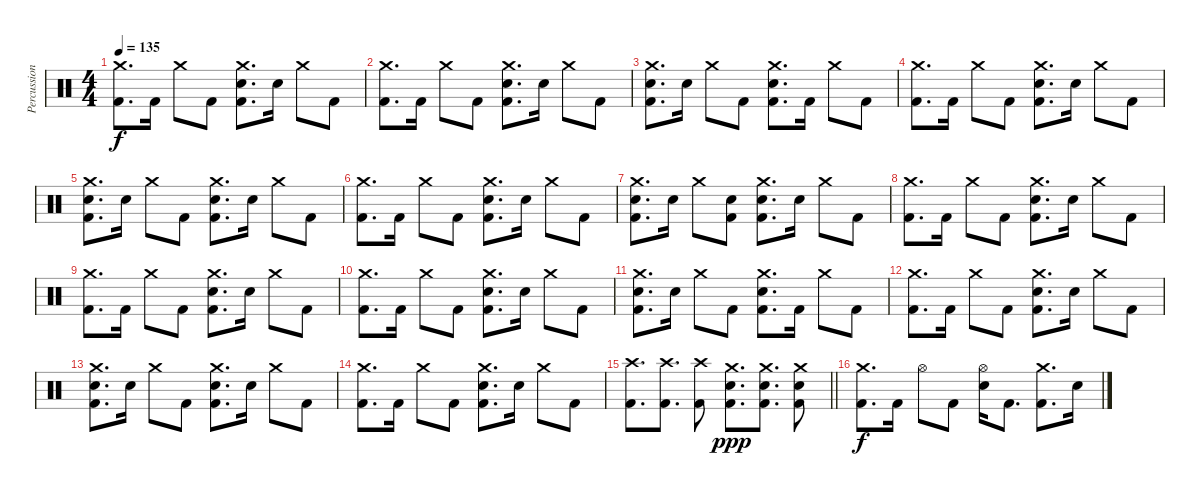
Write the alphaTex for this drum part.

\track ("Percussions" "Percussion") {instrument percussion}
\staff {score}
\articulation defaults
\ts (4 4)
\tempo 135
\clef neutral
\ks c
("Crash medium (hit)" "Kick (hit) 2").8{d dy f} "Kick (hit) 2".16 "Crash medium (hit)".8 "Kick (hit) 2".8 ("Crash medium (hit)" "Electric Snare (hit)" "Kick (hit) 2").8{d} "Electric Snare (hit)".16 "Crash medium (hit)".8 "Kick (hit) 2".8 |
("Crash medium (hit)" "Kick (hit) 2").8{d} "Kick (hit) 2".16 "Crash medium (hit)".8 "Kick (hit) 2".8 ("Crash medium (hit)" "Electric Snare (hit)" "Kick (hit) 2").8{d} "Electric Snare (hit)".16 "Crash medium (hit)".8 "Kick (hit) 2".8 |
("Crash medium (hit)" "Electric Snare (hit)" "Kick (hit) 2").8{d} "Electric Snare (hit)".16 "Crash medium (hit)".8 "Kick (hit) 2".8 ("Crash medium (hit)" "Electric Snare (hit)" "Kick (hit) 2").8{d} "Kick (hit) 2".16 "Crash medium (hit)".8 "Kick (hit) 2".8 |
("Crash medium (hit)" "Kick (hit) 2").8{d} "Kick (hit) 2".16 "Crash medium (hit)".8 "Kick (hit) 2".8 ("Crash medium (hit)" "Electric Snare (hit)" "Kick (hit) 2").8{d} "Electric Snare (hit)".16 "Crash medium (hit)".8 "Kick (hit) 2".8 |
("Crash medium (hit)" "Electric Snare (hit)" "Kick (hit) 2").8{d} "Electric Snare (hit)".16 "Crash medium (hit)".8 "Kick (hit) 2".8 ("Crash medium (hit)" "Electric Snare (hit)" "Kick (hit) 2").8{d} "Electric Snare (hit)".16 "Crash medium (hit)".8 "Kick (hit) 2".8 |
("Crash medium (hit)" "Kick (hit) 2").8{d} "Kick (hit) 2".16 "Crash medium (hit)".8 "Kick (hit) 2".8 ("Crash medium (hit)" "Electric Snare (hit)" "Kick (hit) 2").8{d} "Electric Snare (hit)".16 "Crash medium (hit)".8 "Kick (hit) 2".8 |
("Crash medium (hit)" "Electric Snare (hit)" "Kick (hit) 2").8{d} "Electric Snare (hit)".16 "Crash medium (hit)".8 ("Electric Snare (hit)" "Kick (hit) 2").8 ("Crash medium (hit)" "Electric Snare (hit)" "Kick (hit) 2").8{d} "Electric Snare (hit)".16 "Crash medium (hit)".8 "Kick (hit) 2".8 |
("Crash medium (hit)" "Kick (hit) 2").8{d} "Kick (hit) 2".16 "Crash medium (hit)".8 "Kick (hit) 2".8 ("Crash medium (hit)" "Electric Snare (hit)" "Kick (hit) 2").8{d} "Electric Snare (hit)".16 "Crash medium (hit)".8 "Kick (hit) 2".8 |
("Crash medium (hit)" "Kick (hit) 2").8{d} "Kick (hit) 2".16 "Crash medium (hit)".8 "Kick (hit) 2".8 ("Crash medium (hit)" "Electric Snare (hit)" "Kick (hit) 2").8{d} "Electric Snare (hit)".16 "Crash medium (hit)".8 "Kick (hit) 2".8 |
("Crash medium (hit)" "Kick (hit) 2").8{d} "Kick (hit) 2".16 "Crash medium (hit)".8 "Kick (hit) 2".8 ("Crash medium (hit)" "Electric Snare (hit)" "Kick (hit) 2").8{d} "Electric Snare (hit)".16 "Crash medium (hit)".8 "Kick (hit) 2".8 |
("Crash medium (hit)" "Electric Snare (hit)" "Kick (hit) 2").8{d} "Electric Snare (hit)".16 "Crash medium (hit)".8 "Kick (hit) 2".8 ("Crash medium (hit)" "Electric Snare (hit)" "Kick (hit) 2").8{d} "Kick (hit) 2".16 "Crash medium (hit)".8 "Kick (hit) 2".8 |
("Crash medium (hit)" "Kick (hit) 2").8{d} "Kick (hit) 2".16 "Crash medium (hit)".8 "Kick (hit) 2".8 ("Crash medium (hit)" "Electric Snare (hit)" "Kick (hit) 2").8{d} "Electric Snare (hit)".16 "Crash medium (hit)".8 "Kick (hit) 2".8 |
("Crash medium (hit)" "Electric Snare (hit)" "Kick (hit) 2").8{d} "Electric Snare (hit)".16 "Crash medium (hit)".8 "Kick (hit) 2".8 ("Crash medium (hit)" "Electric Snare (hit)" "Kick (hit) 2").8{d} "Electric Snare (hit)".16 "Crash medium (hit)".8 "Kick (hit) 2".8 |
("Crash medium (hit)" "Kick (hit) 2").8{d} "Kick (hit) 2".16 "Crash medium (hit)".8 "Kick (hit) 2".8 ("Crash medium (hit)" "Electric Snare (hit)" "Kick (hit) 2").8{d} "Electric Snare (hit)".16 "Crash medium (hit)".8 "Kick (hit) 2".8 |
\barLineRight lightlight
("Crash high (hit)" "Kick (hit) 2").8{d} ("Crash high (hit)" "Kick (hit) 2").8{d} ("Crash high (hit)" "Kick (hit) 2").8 ("Crash medium (hit)" "Electric Snare (hit)" "Kick (hit) 2").8{d dy ppp} ("Crash medium (hit)" "Electric Snare (hit)" "Kick (hit) 2").8{d} ("Crash medium (hit)" "Electric Snare (hit)" "Kick (hit) 2").8 |
("Crash medium (hit)" "Kick (hit) 2").8{d dy f} "Kick (hit) 2".16 "Hi-Hat (open)".8 "Kick (hit) 2".8 ("Hi-Hat (open)" "Electric Snare (hit)").16 "Kick (hit) 2".8{d} ("Crash medium (hit)" "Kick (hit) 2").8{d} "Electric Snare (hit)".16
